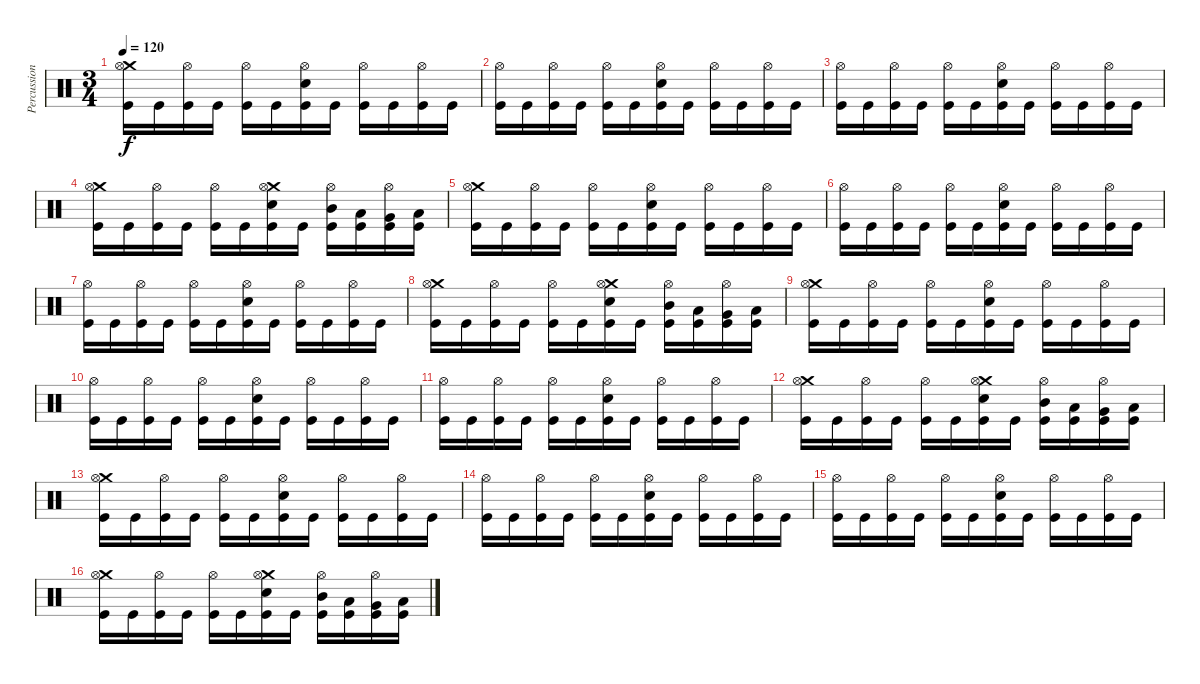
\track ("Percussion" "Percussion") {instrument percussion}
\staff {score}
\articulation defaults
\ts (3 4)
\tempo 120
\clef neutral
\ks c
("Crash medium (hit)" "Hi-Hat (open)" "Kick (hit)").16{dy f} "Kick (hit)".16 ("Hi-Hat (open)" "Kick (hit)").16 "Kick (hit)".16 ("Hi-Hat (open)" "Kick (hit)").16 "Kick (hit)".16 ("Hi-Hat (open)" "Electric Snare (hit)" "Kick (hit)").16 "Kick (hit)".16 ("Hi-Hat (open)" "Kick (hit)").16 "Kick (hit)".16 ("Hi-Hat (open)" "Kick (hit)").16 "Kick (hit)".16 |
("Hi-Hat (open)" "Kick (hit)").16 "Kick (hit)".16 ("Hi-Hat (open)" "Kick (hit)").16 "Kick (hit)".16 ("Hi-Hat (open)" "Kick (hit)").16 "Kick (hit)".16 ("Hi-Hat (open)" "Electric Snare (hit)" "Kick (hit)").16 "Kick (hit)".16 ("Hi-Hat (open)" "Kick (hit)").16 "Kick (hit)".16 ("Hi-Hat (open)" "Kick (hit)").16 "Kick (hit)".16 |
("Hi-Hat (open)" "Kick (hit)").16 "Kick (hit)".16 ("Hi-Hat (open)" "Kick (hit)").16 "Kick (hit)".16 ("Hi-Hat (open)" "Kick (hit)").16 "Kick (hit)".16 ("Hi-Hat (open)" "Electric Snare (hit)" "Kick (hit)").16 "Kick (hit)".16 ("Hi-Hat (open)" "Kick (hit)").16 "Kick (hit)".16 ("Hi-Hat (open)" "Kick (hit)").16 "Kick (hit)".16 |
("Crash medium (hit)" "Hi-Hat (open)" "Kick (hit)").16 "Kick (hit)".16 ("Hi-Hat (open)" "Kick (hit)").16 "Kick (hit)".16 ("Hi-Hat (open)" "Kick (hit)").16 "Kick (hit)".16 ("Crash medium (hit)" "Hi-Hat (open)" "Electric Snare (hit)" "Kick (hit)").16 "Kick (hit)".16 ("Mid Tom (hit)" "Hi-Hat (open)" "Kick (hit)").16 ("Low Tom (hit)" "Kick (hit)").16 ("Very Low Tom (hit)" "Hi-Hat (open)" "Kick (hit)").16 ("Low Floor Tom (hit)" "Kick (hit)").16 |
("Crash medium (hit)" "Hi-Hat (open)" "Kick (hit)").16 "Kick (hit)".16 ("Hi-Hat (open)" "Kick (hit)").16 "Kick (hit)".16 ("Hi-Hat (open)" "Kick (hit)").16 "Kick (hit)".16 ("Hi-Hat (open)" "Electric Snare (hit)" "Kick (hit)").16 "Kick (hit)".16 ("Hi-Hat (open)" "Kick (hit)").16 "Kick (hit)".16 ("Hi-Hat (open)" "Kick (hit)").16 "Kick (hit)".16 |
("Hi-Hat (open)" "Kick (hit)").16 "Kick (hit)".16 ("Hi-Hat (open)" "Kick (hit)").16 "Kick (hit)".16 ("Hi-Hat (open)" "Kick (hit)").16 "Kick (hit)".16 ("Hi-Hat (open)" "Electric Snare (hit)" "Kick (hit)").16 "Kick (hit)".16 ("Hi-Hat (open)" "Kick (hit)").16 "Kick (hit)".16 ("Hi-Hat (open)" "Kick (hit)").16 "Kick (hit)".16 |
("Hi-Hat (open)" "Kick (hit)").16 "Kick (hit)".16 ("Hi-Hat (open)" "Kick (hit)").16 "Kick (hit)".16 ("Hi-Hat (open)" "Kick (hit)").16 "Kick (hit)".16 ("Hi-Hat (open)" "Electric Snare (hit)" "Kick (hit)").16 "Kick (hit)".16 ("Hi-Hat (open)" "Kick (hit)").16 "Kick (hit)".16 ("Hi-Hat (open)" "Kick (hit)").16 "Kick (hit)".16 |
("Crash medium (hit)" "Hi-Hat (open)" "Kick (hit)").16 "Kick (hit)".16 ("Hi-Hat (open)" "Kick (hit)").16 "Kick (hit)".16 ("Hi-Hat (open)" "Kick (hit)").16 "Kick (hit)".16 ("Crash medium (hit)" "Hi-Hat (open)" "Electric Snare (hit)" "Kick (hit)").16 "Kick (hit)".16 ("Mid Tom (hit)" "Hi-Hat (open)" "Kick (hit)").16 ("Low Tom (hit)" "Kick (hit)").16 ("Very Low Tom (hit)" "Hi-Hat (open)" "Kick (hit)").16 ("Low Floor Tom (hit)" "Kick (hit)").16 |
("Crash medium (hit)" "Hi-Hat (open)" "Kick (hit)").16 "Kick (hit)".16 ("Hi-Hat (open)" "Kick (hit)").16 "Kick (hit)".16 ("Hi-Hat (open)" "Kick (hit)").16 "Kick (hit)".16 ("Hi-Hat (open)" "Electric Snare (hit)" "Kick (hit)").16 "Kick (hit)".16 ("Hi-Hat (open)" "Kick (hit)").16 "Kick (hit)".16 ("Hi-Hat (open)" "Kick (hit)").16 "Kick (hit)".16 |
("Hi-Hat (open)" "Kick (hit)").16 "Kick (hit)".16 ("Hi-Hat (open)" "Kick (hit)").16 "Kick (hit)".16 ("Hi-Hat (open)" "Kick (hit)").16 "Kick (hit)".16 ("Hi-Hat (open)" "Electric Snare (hit)" "Kick (hit)").16 "Kick (hit)".16 ("Hi-Hat (open)" "Kick (hit)").16 "Kick (hit)".16 ("Hi-Hat (open)" "Kick (hit)").16 "Kick (hit)".16 |
("Hi-Hat (open)" "Kick (hit)").16 "Kick (hit)".16 ("Hi-Hat (open)" "Kick (hit)").16 "Kick (hit)".16 ("Hi-Hat (open)" "Kick (hit)").16 "Kick (hit)".16 ("Hi-Hat (open)" "Electric Snare (hit)" "Kick (hit)").16 "Kick (hit)".16 ("Hi-Hat (open)" "Kick (hit)").16 "Kick (hit)".16 ("Hi-Hat (open)" "Kick (hit)").16 "Kick (hit)".16 |
("Crash medium (hit)" "Hi-Hat (open)" "Kick (hit)").16 "Kick (hit)".16 ("Hi-Hat (open)" "Kick (hit)").16 "Kick (hit)".16 ("Hi-Hat (open)" "Kick (hit)").16 "Kick (hit)".16 ("Crash medium (hit)" "Hi-Hat (open)" "Electric Snare (hit)" "Kick (hit)").16 "Kick (hit)".16 ("Mid Tom (hit)" "Hi-Hat (open)" "Kick (hit)").16 ("Low Tom (hit)" "Kick (hit)").16 ("Very Low Tom (hit)" "Hi-Hat (open)" "Kick (hit)").16 ("Low Floor Tom (hit)" "Kick (hit)").16 |
("Crash medium (hit)" "Hi-Hat (open)" "Kick (hit)").16 "Kick (hit)".16 ("Hi-Hat (open)" "Kick (hit)").16 "Kick (hit)".16 ("Hi-Hat (open)" "Kick (hit)").16 "Kick (hit)".16 ("Hi-Hat (open)" "Electric Snare (hit)" "Kick (hit)").16 "Kick (hit)".16 ("Hi-Hat (open)" "Kick (hit)").16 "Kick (hit)".16 ("Hi-Hat (open)" "Kick (hit)").16 "Kick (hit)".16 |
("Hi-Hat (open)" "Kick (hit)").16 "Kick (hit)".16 ("Hi-Hat (open)" "Kick (hit)").16 "Kick (hit)".16 ("Hi-Hat (open)" "Kick (hit)").16 "Kick (hit)".16 ("Hi-Hat (open)" "Electric Snare (hit)" "Kick (hit)").16 "Kick (hit)".16 ("Hi-Hat (open)" "Kick (hit)").16 "Kick (hit)".16 ("Hi-Hat (open)" "Kick (hit)").16 "Kick (hit)".16 |
("Hi-Hat (open)" "Kick (hit)").16 "Kick (hit)".16 ("Hi-Hat (open)" "Kick (hit)").16 "Kick (hit)".16 ("Hi-Hat (open)" "Kick (hit)").16 "Kick (hit)".16 ("Hi-Hat (open)" "Electric Snare (hit)" "Kick (hit)").16 "Kick (hit)".16 ("Hi-Hat (open)" "Kick (hit)").16 "Kick (hit)".16 ("Hi-Hat (open)" "Kick (hit)").16 "Kick (hit)".16 |
("Crash medium (hit)" "Hi-Hat (open)" "Kick (hit)").16 "Kick (hit)".16 ("Hi-Hat (open)" "Kick (hit)").16 "Kick (hit)".16 ("Hi-Hat (open)" "Kick (hit)").16 "Kick (hit)".16 ("Crash medium (hit)" "Hi-Hat (open)" "Electric Snare (hit)" "Kick (hit)").16 "Kick (hit)".16 ("Mid Tom (hit)" "Hi-Hat (open)" "Kick (hit)").16 ("Low Tom (hit)" "Kick (hit)").16 ("Very Low Tom (hit)" "Hi-Hat (open)" "Kick (hit)").16 ("Low Floor Tom (hit)" "Kick (hit)").16
